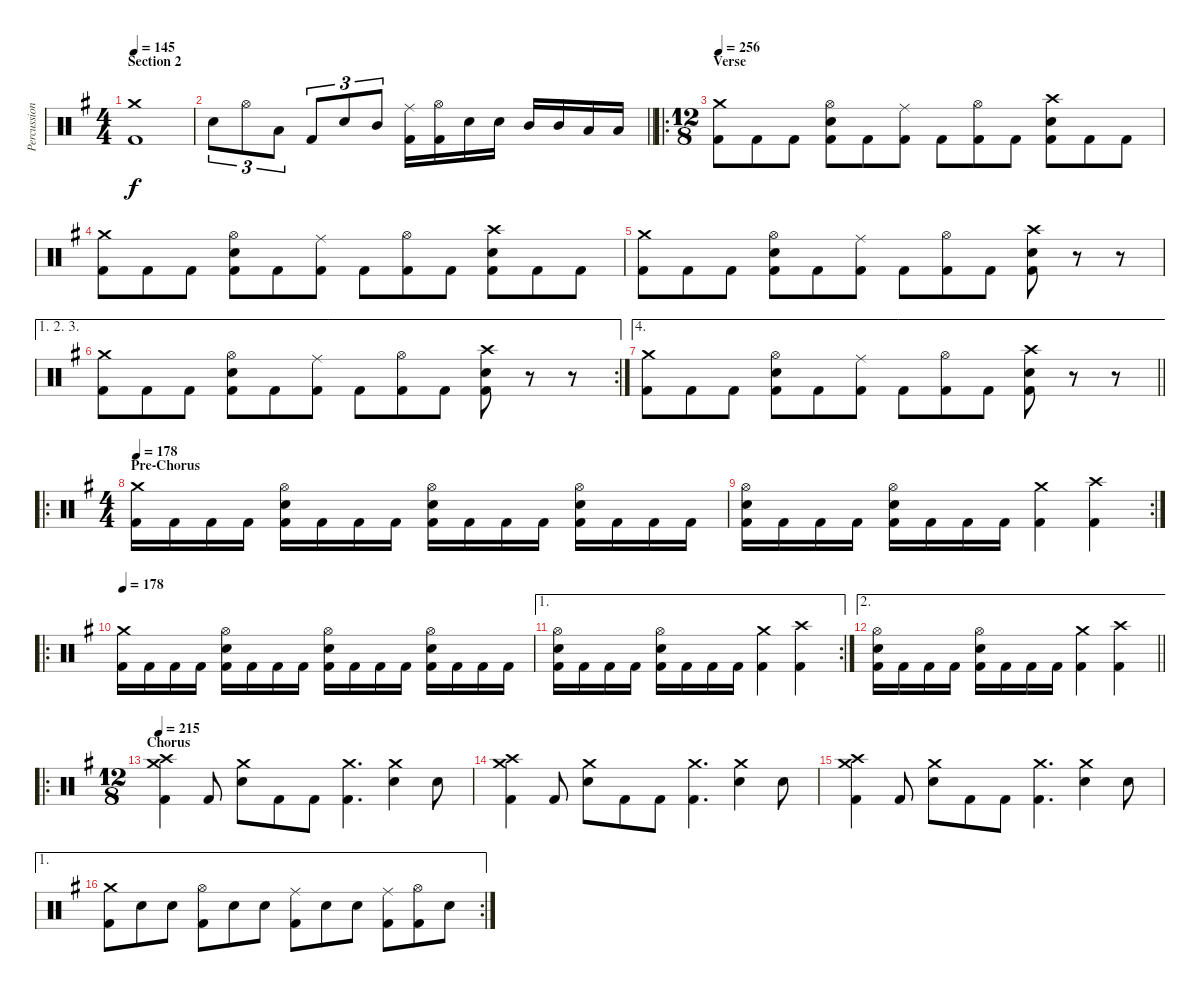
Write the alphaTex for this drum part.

\track ("Percussion" "Percussion") {instrument percussion}
\staff {score}
\articulation defaults
\ts (4 4)
\section ("" "Section 2")
\tempo 145
\clef neutral
\ks eminor
("Crash medium (hit)" "Kick (hit) 2").1{dy f} |
\barLineRight lightlight "Electric Snare (hit)".8{tu (3 2)} "Hi-Hat (open)".8{tu (3 2)} "Low Tom (hit)".8{tu (3 2)} "Kick (hit) 2".8{tu (3 2)} "Electric Snare (hit)".8{tu (3 2)} "Mid Tom (hit)".8{tu (3 2)}
("Ride (middle)" "Kick (hit) 2").16 ("Hi-Hat (open)" "Kick (hit) 2").16 "Electric Snare (hit)".16 "Electric Snare (hit)".16 "Mid Tom (hit)".16 "Mid Tom (hit)".16 "Low Tom (hit)".16 "Low Tom (hit)".16 |
\ro
\ts (12 8)
\section ("" "Verse")
\tempo 256
("Crash medium (hit)" "Kick (hit) 2").8 "Kick (hit) 2".8 "Kick (hit) 2".8 ("Hi-Hat (open)" "Electric Snare (hit)" "Kick (hit) 2").8 "Kick (hit) 2".8 ("Ride (middle)" "Kick (hit) 2").8 "Kick (hit) 2".8 ("Hi-Hat (open)" "Kick (hit) 2").8 "Kick (hit) 2".8 ("Crash high (hit)" "Electric Snare (hit)" "Kick (hit) 2").8 "Kick (hit) 2".8 "Kick (hit) 2".8 |
("Crash medium (hit)" "Kick (hit) 2").8 "Kick (hit) 2".8 "Kick (hit) 2".8 ("Hi-Hat (open)" "Electric Snare (hit)" "Kick (hit) 2").8 "Kick (hit) 2".8 ("Ride (middle)" "Kick (hit) 2").8 "Kick (hit) 2".8 ("Hi-Hat (open)" "Kick (hit) 2").8 "Kick (hit) 2".8 ("Crash high (hit)" "Electric Snare (hit)" "Kick (hit) 2").8 "Kick (hit) 2".8 "Kick (hit) 2".8 |
("Crash medium (hit)" "Kick (hit) 2").8 "Kick (hit) 2".8 "Kick (hit) 2".8 ("Hi-Hat (open)" "Electric Snare (hit)" "Kick (hit) 2").8 "Kick (hit) 2".8 ("Ride (middle)" "Kick (hit) 2").8 "Kick (hit) 2".8 ("Hi-Hat (open)" "Kick (hit) 2").8 "Kick (hit) 2".8 ("Crash high (hit)" "Electric Snare (hit)" "Kick (hit) 2").8 r.8 r.8 |
\ae (1 2 3)
\rc 2
("Crash medium (hit)" "Kick (hit) 2").8 "Kick (hit) 2".8 "Kick (hit) 2".8 ("Hi-Hat (open)" "Electric Snare (hit)" "Kick (hit) 2").8 "Kick (hit) 2".8 ("Ride (middle)" "Kick (hit) 2").8 "Kick (hit) 2".8 ("Hi-Hat (open)" "Kick (hit) 2").8 "Kick (hit) 2".8 ("Crash high (hit)" "Electric Snare (hit)" "Kick (hit) 2").8 r.8 r.8 |
\ae 4
\barLineRight lightlight
("Crash medium (hit)" "Kick (hit) 2").8 "Kick (hit) 2".8 "Kick (hit) 2".8 ("Hi-Hat (open)" "Electric Snare (hit)" "Kick (hit) 2").8 "Kick (hit) 2".8 ("Ride (middle)" "Kick (hit) 2").8 "Kick (hit) 2".8 ("Hi-Hat (open)" "Kick (hit) 2").8 "Kick (hit) 2".8 ("Crash high (hit)" "Electric Snare (hit)" "Kick (hit) 2").8 r.8 r.8 |
\ro
\ts (4 4)
\section ("" "Pre-Chorus")
\tempo 178
("Crash medium (hit)" "Kick (hit) 2").16 "Kick (hit) 2".16 "Kick (hit) 2".16 "Kick (hit) 2".16 ("Hi-Hat (open)" "Electric Snare (hit)" "Kick (hit) 2").16 "Kick (hit) 2".16 "Kick (hit) 2".16 "Kick (hit) 2".16 ("Hi-Hat (open)" "Electric Snare (hit)" "Kick (hit) 2").16 "Kick (hit) 2".16 "Kick (hit) 2".16 "Kick (hit) 2".16 ("Hi-Hat (open)" "Electric Snare (hit)" "Kick (hit) 2").16 "Kick (hit) 2".16 "Kick (hit) 2".16 "Kick (hit) 2".16 |
\rc 2
("Hi-Hat (open)" "Electric Snare (hit)" "Kick (hit) 2").16 "Kick (hit) 2".16 "Kick (hit) 2".16 "Kick (hit) 2".16 ("Hi-Hat (open)" "Electric Snare (hit)" "Kick (hit) 2").16 "Kick (hit) 2".16 "Kick (hit) 2".16 "Kick (hit) 2".16 ("Crash medium (hit)" "Kick (hit) 2").4 ("Crash high (hit)" "Kick (hit) 2").4 |
\ro
\tempo 178
("Crash medium (hit)" "Kick (hit) 2").16 "Kick (hit) 2".16 "Kick (hit) 2".16 "Kick (hit) 2".16 ("Hi-Hat (open)" "Electric Snare (hit)" "Kick (hit) 2").16 "Kick (hit) 2".16 "Kick (hit) 2".16 "Kick (hit) 2".16 ("Hi-Hat (open)" "Electric Snare (hit)" "Kick (hit) 2").16 "Kick (hit) 2".16 "Kick (hit) 2".16 "Kick (hit) 2".16 ("Hi-Hat (open)" "Electric Snare (hit)" "Kick (hit) 2").16 "Kick (hit) 2".16 "Kick (hit) 2".16 "Kick (hit) 2".16 |
\ae 1
\rc 2
("Hi-Hat (open)" "Electric Snare (hit)" "Kick (hit) 2").16 "Kick (hit) 2".16 "Kick (hit) 2".16 "Kick (hit) 2".16 ("Hi-Hat (open)" "Electric Snare (hit)" "Kick (hit) 2").16 "Kick (hit) 2".16 "Kick (hit) 2".16 "Kick (hit) 2".16 ("Crash medium (hit)" "Kick (hit) 2").4 ("Crash high (hit)" "Kick (hit) 2").4 |
\ae 2
\barLineRight lightlight
("Hi-Hat (open)" "Electric Snare (hit)" "Kick (hit) 2").16 "Kick (hit) 2".16 "Kick (hit) 2".16 "Kick (hit) 2".16 ("Hi-Hat (open)" "Electric Snare (hit)" "Kick (hit) 2").16 "Kick (hit) 2".16 "Kick (hit) 2".16 "Kick (hit) 2".16 ("Crash medium (hit)" "Kick (hit) 2").4 ("Crash high (hit)" "Kick (hit) 2").4 |
\ro
\ts (12 8)
\section ("" "Chorus")
\tempo 215
("Crash high (hit)" "Crash medium (hit)" "Kick (hit) 2").4 "Kick (hit) 2".8 ("Crash medium (hit)" "Electric Snare (hit)").8 "Kick (hit) 2".8 "Kick (hit) 2".8 ("Crash medium (hit)" "Kick (hit) 2").4{d} ("Crash medium (hit)" "Electric Snare (hit)").4 "Electric Snare (hit)".8 |
("Crash high (hit)" "Crash medium (hit)" "Kick (hit) 2").4 "Kick (hit) 2".8 ("Crash medium (hit)" "Electric Snare (hit)").8 "Kick (hit) 2".8 "Kick (hit) 2".8 ("Crash medium (hit)" "Kick (hit) 2").4{d} ("Crash medium (hit)" "Electric Snare (hit)").4 "Electric Snare (hit)".8 |
("Crash high (hit)" "Crash medium (hit)" "Kick (hit) 2").4 "Kick (hit) 2".8 ("Crash medium (hit)" "Electric Snare (hit)").8 "Kick (hit) 2".8 "Kick (hit) 2".8 ("Crash medium (hit)" "Kick (hit) 2").4{d} ("Crash medium (hit)" "Electric Snare (hit)").4 "Electric Snare (hit)".8 |
\ae 1
\rc 2
("Crash medium (hit)" "Kick (hit) 2").8 "Electric Snare (hit)".8 "Electric Snare (hit)".8 ("Hi-Hat (open)" "Kick (hit) 2").8 "Electric Snare (hit)".8 "Electric Snare (hit)".8 ("Ride (middle)" "Kick (hit) 2").8 "Electric Snare (hit)".8 "Electric Snare (hit)".8 ("Ride (middle)" "Kick (hit) 2").8 ("Hi-Hat (open)" "Kick (hit) 2").8 "Electric Snare (hit)".8
